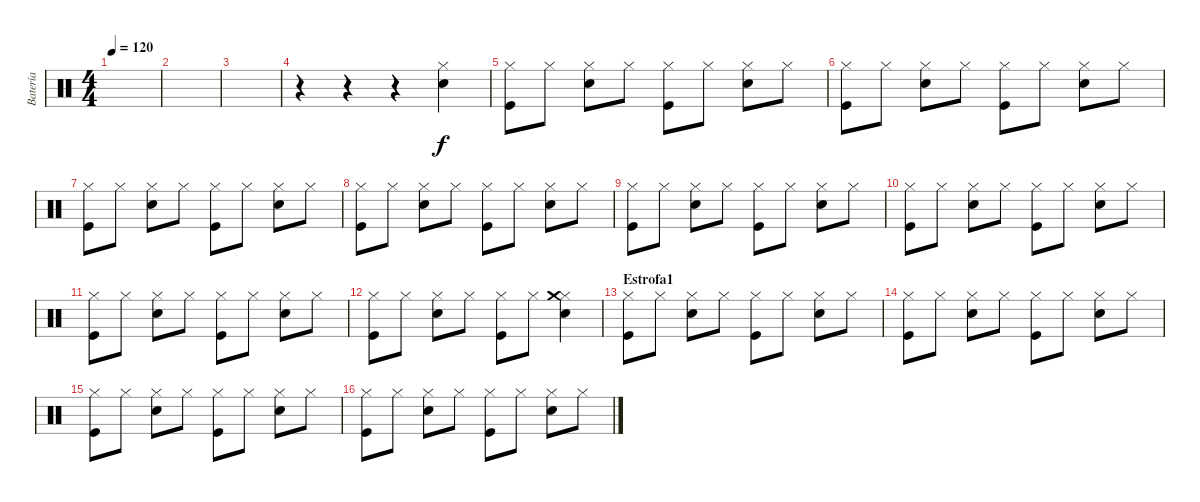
\track ("Batería" "Batería") {instrument percussion}
\staff {score}
\articulation defaults
\ts (4 4)
\tempo 120
\clef neutral
\ks c
|
|
|
r.4 r.4 r.4 ("Snare (hit) 2" "Hi-Hat (closed)").4 |
("Hi-Hat (closed)" "Kick (hit)").8 "Hi-Hat (closed)".8 ("Hi-Hat (closed)" "Snare (hit) 2").8 "Hi-Hat (closed)".8 ("Hi-Hat (closed)" "Kick (hit)").8 "Hi-Hat (closed)".8 ("Hi-Hat (closed)" "Snare (hit) 2").8 "Hi-Hat (closed)".8 |
("Hi-Hat (closed)" "Kick (hit)").8 "Hi-Hat (closed)".8 ("Hi-Hat (closed)" "Snare (hit) 2").8 "Hi-Hat (closed)".8 ("Hi-Hat (closed)" "Kick (hit)").8 "Hi-Hat (closed)".8 ("Hi-Hat (closed)" "Snare (hit) 2").8 "Hi-Hat (closed)".8 |
("Hi-Hat (closed)" "Kick (hit)").8 "Hi-Hat (closed)".8 ("Hi-Hat (closed)" "Snare (hit) 2").8 "Hi-Hat (closed)".8 ("Hi-Hat (closed)" "Kick (hit)").8 "Hi-Hat (closed)".8 ("Hi-Hat (closed)" "Snare (hit) 2").8 "Hi-Hat (closed)".8 |
("Hi-Hat (closed)" "Kick (hit)").8 "Hi-Hat (closed)".8 ("Hi-Hat (closed)" "Snare (hit) 2").8 "Hi-Hat (closed)".8 ("Hi-Hat (closed)" "Kick (hit)").8 "Hi-Hat (closed)".8 ("Hi-Hat (closed)" "Snare (hit) 2").8 "Hi-Hat (closed)".8 |
("Hi-Hat (closed)" "Kick (hit)").8 "Hi-Hat (closed)".8 ("Hi-Hat (closed)" "Snare (hit) 2").8 "Hi-Hat (closed)".8 ("Hi-Hat (closed)" "Kick (hit)").8 "Hi-Hat (closed)".8 ("Hi-Hat (closed)" "Snare (hit) 2").8 "Hi-Hat (closed)".8 |
("Hi-Hat (closed)" "Kick (hit)").8 "Hi-Hat (closed)".8 ("Hi-Hat (closed)" "Snare (hit) 2").8 "Hi-Hat (closed)".8 ("Hi-Hat (closed)" "Kick (hit)").8 "Hi-Hat (closed)".8 ("Hi-Hat (closed)" "Snare (hit) 2").8 "Hi-Hat (closed)".8 |
("Hi-Hat (closed)" "Kick (hit)").8 "Hi-Hat (closed)".8 ("Hi-Hat (closed)" "Snare (hit) 2").8 "Hi-Hat (closed)".8 ("Hi-Hat (closed)" "Kick (hit)").8 "Hi-Hat (closed)".8 ("Hi-Hat (closed)" "Snare (hit) 2").8 "Hi-Hat (closed)".8 |
("Hi-Hat (closed)" "Kick (hit)").8 "Hi-Hat (closed)".8 ("Hi-Hat (closed)" "Snare (hit) 2").8 "Hi-Hat (closed)".8 ("Hi-Hat (closed)" "Kick (hit)").8 "Hi-Hat (closed)".8 ("Hi-Hat (closed)" "Snare (hit) 2" "Crash medium (hit)").4 |
\section ("" "Estrofa1")
("Hi-Hat (closed)" "Kick (hit)").8 "Hi-Hat (closed)".8 ("Hi-Hat (closed)" "Snare (hit) 2").8 "Hi-Hat (closed)".8 ("Hi-Hat (closed)" "Kick (hit)").8 "Hi-Hat (closed)".8 ("Hi-Hat (closed)" "Snare (hit) 2").8 "Hi-Hat (closed)".8 |
("Hi-Hat (closed)" "Kick (hit)").8 "Hi-Hat (closed)".8 ("Hi-Hat (closed)" "Snare (hit) 2").8 "Hi-Hat (closed)".8 ("Hi-Hat (closed)" "Kick (hit)").8 "Hi-Hat (closed)".8 ("Hi-Hat (closed)" "Snare (hit) 2").8 "Hi-Hat (closed)".8 |
("Hi-Hat (closed)" "Kick (hit)").8 "Hi-Hat (closed)".8 ("Hi-Hat (closed)" "Snare (hit) 2").8 "Hi-Hat (closed)".8 ("Hi-Hat (closed)" "Kick (hit)").8 "Hi-Hat (closed)".8 ("Hi-Hat (closed)" "Snare (hit) 2").8 "Hi-Hat (closed)".8 |
("Hi-Hat (closed)" "Kick (hit)").8 "Hi-Hat (closed)".8 ("Hi-Hat (closed)" "Snare (hit) 2").8 "Hi-Hat (closed)".8 ("Hi-Hat (closed)" "Kick (hit)").8 "Hi-Hat (closed)".8 ("Hi-Hat (closed)" "Snare (hit) 2").8 "Hi-Hat (closed)".8
